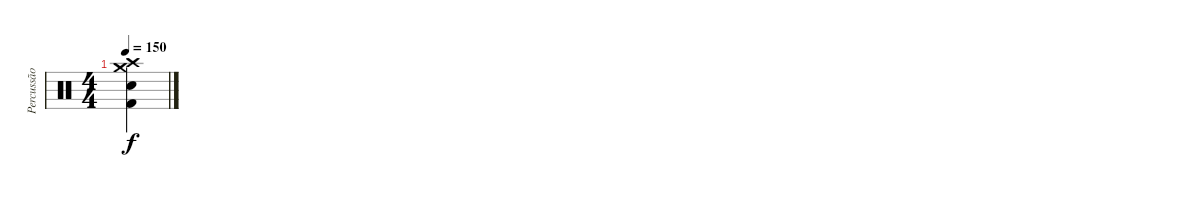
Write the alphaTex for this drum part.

\track ("Percussão" "Percussão") {instrument percussion}
\staff {score}
\articulation defaults
\ts (4 4)
\tempo 150
\clef neutral
\ks c
("Crash high (hit)" "Snare (hit) 2" "Kick (hit) 2" "Crash medium (hit)").4{dy f}
